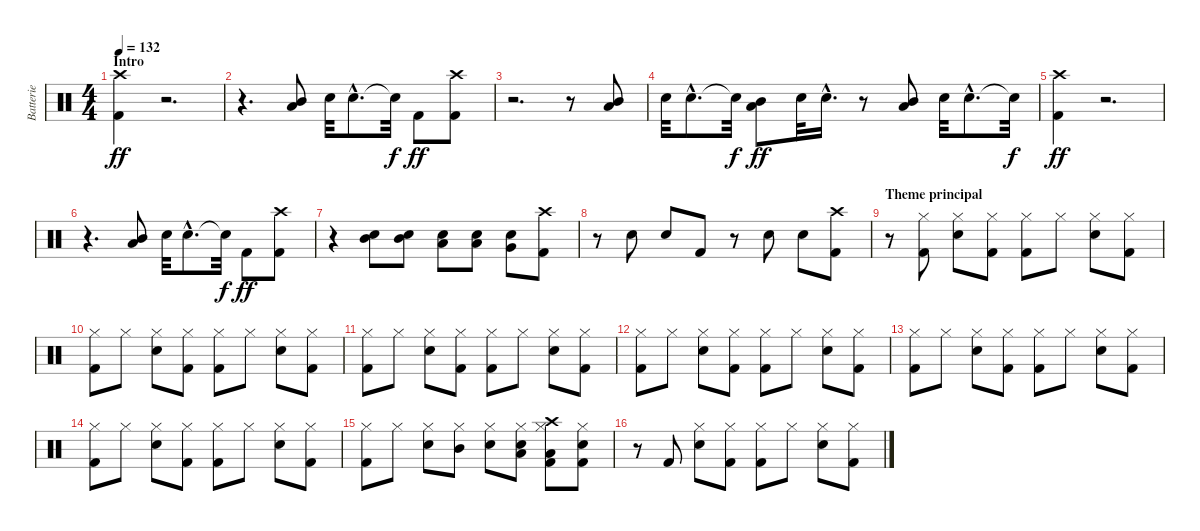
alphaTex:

\track ("Batterie" "Batterie") {instrument percussion}
\staff {score}
\articulation defaults
\ts (4 4)
\section ("" "Intro")
\tempo 132
\clef neutral
\ks c
("Kick (hit) 2" "Crash high (hit)").4{dy ff} r.2{d} |
r.4{d} ("Low Tom (hit)" "Mid Tom (hit)").8 "Snare (hit) 2".32 "Snare (hit) 2"{hac}.8{d} "Snare (hit)"{t}.32{dy f} "Kick (hit) 2".8{dy ff} ("Kick (hit) 2" "Crash high (hit)").8 |
r.2{d} r.8 ("Low Tom (hit)" "Mid Tom (hit)").8 |
"Snare (hit) 2".32 "Snare (hit) 2"{hac}.8{d} "Snare (hit)"{t}.32{dy f} ("Low Tom (hit)" "Mid Tom (hit)").8{dy ff} "Snare (hit) 2".32 "Snare (hit) 2"{hac}.16{d} r.8 ("Low Tom (hit)" "Mid Tom (hit)").8 "Snare (hit) 2".32 "Snare (hit) 2"{hac}.8{d} "Snare (hit)"{t}.32{dy f} |
("Kick (hit) 2" "Crash high (hit)").4{dy ff} r.2{d} |
r.4{d} ("Low Tom (hit)" "Mid Tom (hit)").8 "Snare (hit) 2".32 "Snare (hit) 2"{hac}.8{d} "Snare (hit)"{t}.32{dy f} "Kick (hit) 2".8{dy ff} ("Kick (hit) 2" "Crash high (hit)").8 |
r.4 ("Snare (hit) 2" "Mid Tom (hit)").8 ("Snare (hit) 2" "Mid Tom (hit)").8 ("Snare (hit) 2" "Low Tom (hit)").8 ("Snare (hit) 2" "Low Tom (hit)").8 ("Snare (hit) 2" "Very Low Tom (hit)").8 ("Kick (hit) 2" "Crash high (hit)").8 |
r.8 "Snare (hit) 2".8 "Snare (hit) 2".8 "Kick (hit) 2".8 r.8 "Snare (hit) 2".8 "Snare (hit) 2".8 ("Kick (hit) 2" "Crash high (hit)").8 |
\section ("" "Theme principal")
r.8 ("Kick (hit) 2" "Hi-Hat (closed)").8 ("Snare (hit) 2" "Hi-Hat (closed)").8 ("Kick (hit) 2" "Hi-Hat (closed)").8 ("Kick (hit) 2" "Hi-Hat (closed)").8 "Hi-Hat (closed)".8 ("Snare (hit) 2" "Hi-Hat (closed)").8 ("Kick (hit) 2" "Hi-Hat (closed)").8 |
("Kick (hit) 2" "Hi-Hat (closed)").8 "Hi-Hat (closed)".8 ("Snare (hit) 2" "Hi-Hat (closed)").8 ("Kick (hit) 2" "Hi-Hat (closed)").8 ("Kick (hit) 2" "Hi-Hat (closed)").8 "Hi-Hat (closed)".8 ("Snare (hit) 2" "Hi-Hat (closed)").8 ("Kick (hit) 2" "Hi-Hat (closed)").8 |
("Kick (hit) 2" "Hi-Hat (closed)").8 "Hi-Hat (closed)".8 ("Snare (hit) 2" "Hi-Hat (closed)").8 ("Kick (hit) 2" "Hi-Hat (closed)").8 ("Kick (hit) 2" "Hi-Hat (closed)").8 "Hi-Hat (closed)".8 ("Snare (hit) 2" "Hi-Hat (closed)").8 ("Kick (hit) 2" "Hi-Hat (closed)").8 |
("Kick (hit) 2" "Hi-Hat (closed)").8 "Hi-Hat (closed)".8 ("Snare (hit) 2" "Hi-Hat (closed)").8 ("Kick (hit) 2" "Hi-Hat (closed)").8 ("Kick (hit) 2" "Hi-Hat (closed)").8 "Hi-Hat (closed)".8 ("Snare (hit) 2" "Hi-Hat (closed)").8 ("Kick (hit) 2" "Hi-Hat (closed)").8 |
("Kick (hit) 2" "Hi-Hat (closed)").8 "Hi-Hat (closed)".8 ("Snare (hit) 2" "Hi-Hat (closed)").8 ("Kick (hit) 2" "Hi-Hat (closed)").8 ("Kick (hit) 2" "Hi-Hat (closed)").8 "Hi-Hat (closed)".8 ("Snare (hit) 2" "Hi-Hat (closed)").8 ("Kick (hit) 2" "Hi-Hat (closed)").8 |
("Kick (hit) 2" "Hi-Hat (closed)").8 "Hi-Hat (closed)".8 ("Snare (hit) 2" "Hi-Hat (closed)").8 ("Kick (hit) 2" "Hi-Hat (closed)").8 ("Kick (hit) 2" "Hi-Hat (closed)").8 "Hi-Hat (closed)".8 ("Snare (hit) 2" "Hi-Hat (closed)").8 ("Kick (hit) 2" "Hi-Hat (closed)").8 |
("Kick (hit) 2" "Hi-Hat (closed)").8 "Hi-Hat (closed)".8 ("Snare (hit) 2" "Hi-Hat (closed)").8 ("Hi-Hat (closed)" "Mid Tom (hit)").8 ("Snare (hit) 2" "Hi-Hat (closed)").8 ("Snare (hit) 2" "Hi-Hat (closed)" "Low Tom (hit)").8 ("Kick (hit) 2" "Hi-Hat (closed)" "Low Tom (hit)" "Crash high (hit)").8 ("Kick (hit) 2" "Snare (hit) 2" "Hi-Hat (closed)").8 |
r.8 "Kick (hit) 2".8 ("Snare (hit) 2" "Hi-Hat (closed)").8 ("Kick (hit) 2" "Hi-Hat (closed)").8 ("Kick (hit) 2" "Hi-Hat (closed)").8 "Hi-Hat (closed)".8 ("Snare (hit) 2" "Hi-Hat (closed)").8 ("Kick (hit) 2" "Hi-Hat (closed)").8
